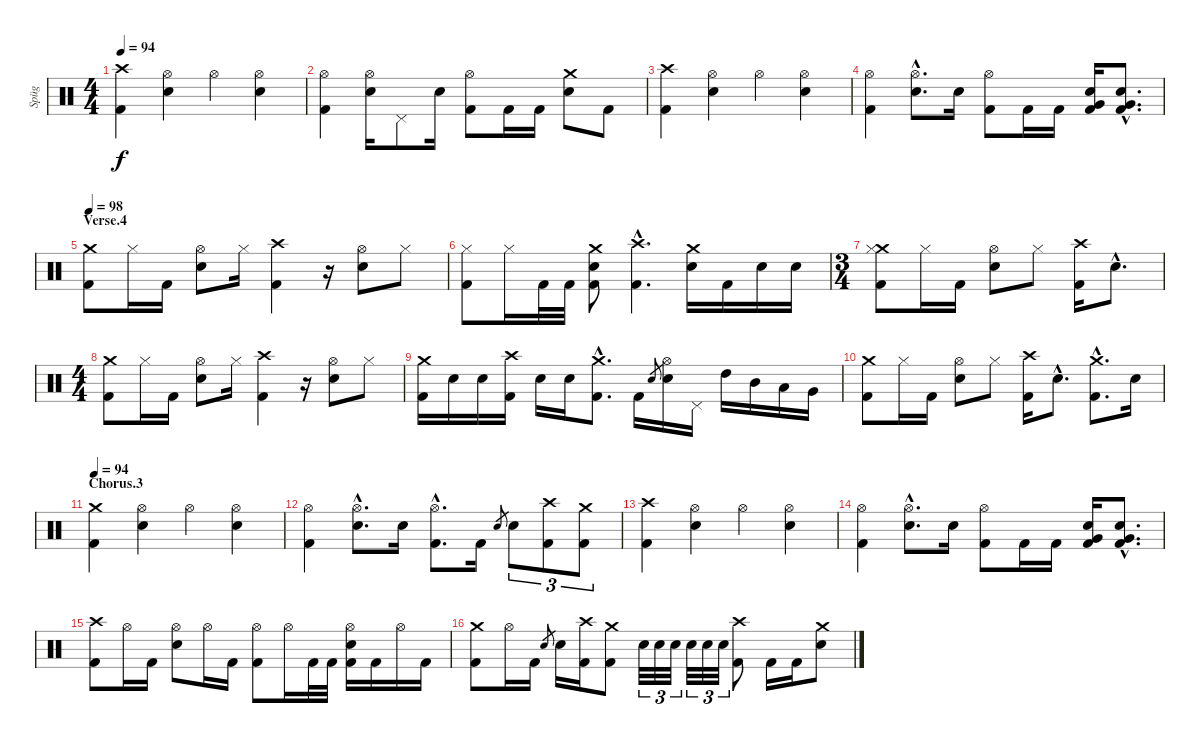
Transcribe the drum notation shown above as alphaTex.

\track ("Spüg" "Spüg") {instrument percussion}
\staff {score}
\articulation defaults
\ts (4 4)
\tempo 94
\clef neutral
\ks c
("Crash high (hit)" "Kick (hit) 2").4{dy f} ("Hi-Hat (open)" "Electric Snare (hit)").4 "Hi-Hat (open)".4 ("Hi-Hat (open)" "Electric Snare (hit)").4 |
("Hi-Hat (open)" "Kick (hit) 2").4 ("Hi-Hat (open)" "Electric Snare (hit)").16 "Pedal Hi-Hat (hit)".8 "Electric Snare (hit)".16 ("Hi-Hat (open)" "Kick (hit) 2").8 "Kick (hit) 2".16 "Kick (hit) 2".16 ("Crash medium (hit)" "Electric Snare (hit)").8 "Kick (hit) 2".8 |
("Crash high (hit)" "Kick (hit) 2").4 ("Hi-Hat (open)" "Electric Snare (hit)").4 "Hi-Hat (open)".4 ("Hi-Hat (open)" "Electric Snare (hit)").4 |
("Hi-Hat (open)" "Kick (hit) 2").4 ("Hi-Hat (open)"{hac} "Electric Snare (hit)"{hac}).8{d} "Electric Snare (hit)".16 ("Hi-Hat (open)" "Kick (hit) 2").8 "Kick (hit) 2".16 "Kick (hit) 2".16 ("Electric Snare (hit)" "Very Low Tom (hit)" "Kick (hit) 2").16 ("Electric Snare (hit)"{hac} "Very Low Tom (hit)"{hac} "Kick (hit) 2"{hac}).8{d} |
\section ("" "Verse.4")
\tempo 98
("Crash medium (hit)" "Kick (hit) 2").8 "Hi-Hat (closed)".16 "Kick (hit) 2".16 ("Hi-Hat (open)" "Electric Snare (hit)").8 "Hi-Hat (closed)".16 ("Crash high (hit)" "Kick (hit) 2").4 r.16 ("Hi-Hat (open)" "Electric Snare (hit)").8 "Hi-Hat (closed)".8 |
("Hi-Hat (closed)" "Kick (hit) 2").8 "Hi-Hat (closed)".16 "Kick (hit) 2".32 "Kick (hit) 2".32 ("Crash medium (hit)" "Electric Snare (hit)" "Kick (hit) 2").8 ("Crash high (hit)"{hac} "Kick (hit) 2"{hac}).4{d} ("Crash medium (hit)" "Electric Snare (hit)").16 "Kick (hit) 2".16 "Electric Snare (hit)".16 "Electric Snare (hit)".16 |
\ts (3 4)
("Crash medium (hit)" "Hi-Hat (closed)" "Kick (hit) 2").8 "Hi-Hat (closed)".16 "Kick (hit) 2".16 ("Hi-Hat (open)" "Electric Snare (hit)").8 "Hi-Hat (closed)".8 ("Crash high (hit)" "Kick (hit) 2").16 "Electric Snare (hit)"{hac}.8{d} |
\ts (4 4)
("Crash medium (hit)" "Kick (hit) 2").8 "Hi-Hat (closed)".16 "Kick (hit) 2".16 ("Hi-Hat (open)" "Electric Snare (hit)").8 "Hi-Hat (closed)".16 ("Crash high (hit)" "Kick (hit) 2").4 r.16 ("Hi-Hat (open)" "Electric Snare (hit)").8 "Hi-Hat (closed)".8 |
("Crash medium (hit)" "Kick (hit) 2").16 "Electric Snare (hit)".16 "Electric Snare (hit)".16 ("Crash high (hit)" "Kick (hit) 2").16 "Electric Snare (hit)".16 "Electric Snare (hit)".16 ("Crash medium (hit)"{hac} "Kick (hit) 2"{hac}).8{d} "Kick (hit) 2".16 "Electric Snare (hit)".8{gr} ("Hi-Hat (open)" "Electric Snare (hit)").16 "Pedal Hi-Hat (hit)".16 "High Tom (hit)".16 "Mid Tom (hit)".16 "Low Tom (hit)".16 "Very Low Tom (hit)".16 |
("Crash medium (hit)" "Kick (hit) 2").8 "Hi-Hat (closed)".16 "Kick (hit) 2".16 ("Hi-Hat (open)" "Electric Snare (hit)").8 "Hi-Hat (closed)".8 ("Crash high (hit)" "Kick (hit) 2").16 "Electric Snare (hit)"{hac}.8{d} ("Crash medium (hit)"{hac} "Kick (hit) 2"{hac}).8{d} "Electric Snare (hit)".16 |
\section ("" "Chorus.3")
\tempo 94
("Crash medium (hit)" "Kick (hit) 2").4 ("Hi-Hat (open)" "Electric Snare (hit)").4 "Hi-Hat (open)".4 ("Hi-Hat (open)" "Electric Snare (hit)").4 |
("Hi-Hat (open)" "Kick (hit) 2").4 ("Hi-Hat (open)"{hac} "Electric Snare (hit)"{hac}).8{d} "Electric Snare (hit)".16 ("Hi-Hat (open)"{hac} "Kick (hit) 2"{hac}).8{d} "Kick (hit) 2".16 "Electric Snare (hit)".8{gr} "Electric Snare (hit)".8{tu (3 2)} ("Crash high (hit)" "Kick (hit) 2").8{tu (3 2)} ("Crash medium (hit)" "Kick (hit) 2").8{tu (3 2)} |
("Crash high (hit)" "Kick (hit) 2").4 ("Hi-Hat (open)" "Electric Snare (hit)").4 "Hi-Hat (open)".4 ("Hi-Hat (open)" "Electric Snare (hit)").4 |
("Hi-Hat (open)" "Kick (hit) 2").4 ("Hi-Hat (open)"{hac} "Electric Snare (hit)"{hac}).8{d} "Electric Snare (hit)".16 ("Hi-Hat (open)" "Kick (hit) 2").8 "Kick (hit) 2".16 "Kick (hit) 2".16 ("Electric Snare (hit)" "Very Low Tom (hit)" "Kick (hit) 2").16 ("Electric Snare (hit)"{hac} "Very Low Tom (hit)"{hac} "Kick (hit) 2"{hac}).8{d} |
("Crash high (hit)" "Kick (hit) 2").8 "Hi-Hat (open)".16 "Kick (hit) 2".16 ("Hi-Hat (open)" "Electric Snare (hit)").8 "Hi-Hat (open)".16 "Kick (hit) 2".16 ("Hi-Hat (open)" "Kick (hit) 2").8 "Hi-Hat (open)".16 "Kick (hit) 2".32 "Kick (hit) 2".32 ("Hi-Hat (open)" "Electric Snare (hit)" "Kick (hit) 2").16 "Kick (hit) 2".16 "Hi-Hat (open)".16 "Kick (hit) 2".16 |
("Crash medium (hit)" "Kick (hit) 2").8 "Hi-Hat (open)".16 "Kick (hit) 2".16 "Electric Snare (hit)".8{gr} "Electric Snare (hit)".16 ("Crash high (hit)" "Kick (hit) 2").16 ("Crash medium (hit)" "Kick (hit) 2").8 "Electric Snare (hit)".32{tu (3 2)} "Electric Snare (hit)".32{tu (3 2)} "Electric Snare (hit)".32{tu (3 2)} "Electric Snare (hit)".32{tu (3 2)} "Electric Snare (hit)".32{tu (3 2)} "Electric Snare (hit)".32{tu (3 2)} ("Crash high (hit)" "Kick (hit) 2").8 "Kick (hit) 2".16 "Kick (hit) 2".16 ("Crash medium (hit)" "Electric Snare (hit)").8
